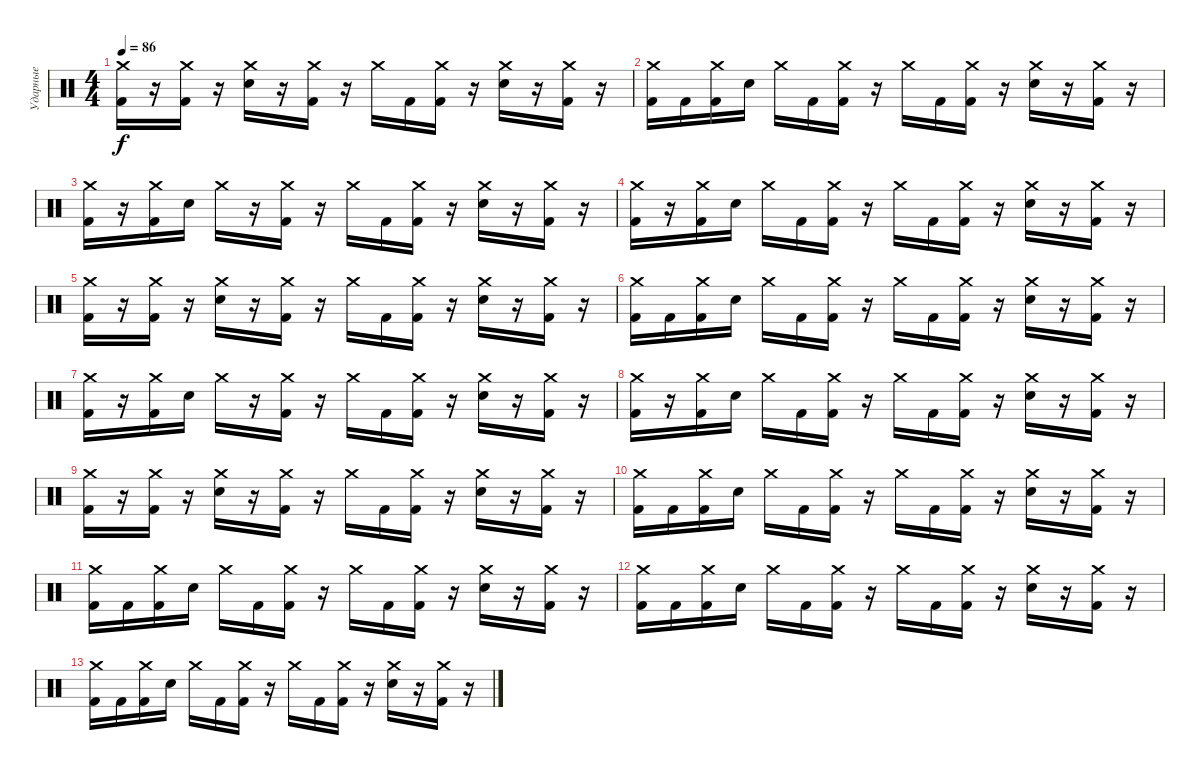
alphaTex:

\track ("Ударные" "Ударные") {instrument percussion}
\staff {score}
\articulation defaults
\ts (4 4)
\tempo 86
\clef neutral
\ks c
("Crash medium (hit)" "Kick (hit) 2").16{dy f} r.16 ("Crash medium (hit)" "Kick (hit) 2").16 r.16 ("Crash medium (hit)" "Electric Snare (hit)").16 r.16 ("Crash medium (hit)" "Kick (hit) 2").16 r.16 "Crash medium (hit)".16 "Kick (hit) 2".16 ("Crash medium (hit)" "Kick (hit) 2").16 r.16 ("Crash medium (hit)" "Electric Snare (hit)").16 r.16 ("Crash medium (hit)" "Kick (hit) 2").16 r.16 |
("Crash medium (hit)" "Kick (hit) 2").16 "Kick (hit) 2".16 ("Crash medium (hit)" "Kick (hit) 2").16 "Electric Snare (hit)".16 "Crash medium (hit)".16 "Kick (hit) 2".16 ("Crash medium (hit)" "Kick (hit) 2").16 r.16 "Crash medium (hit)".16 "Kick (hit) 2".16 ("Crash medium (hit)" "Kick (hit) 2").16 r.16 ("Crash medium (hit)" "Electric Snare (hit)").16 r.16 ("Crash medium (hit)" "Kick (hit) 2").16 r.16 |
("Crash medium (hit)" "Kick (hit) 2").16 r.16 ("Crash medium (hit)" "Kick (hit) 2").16 "Electric Snare (hit)".16 "Crash medium (hit)".16 r.16 ("Crash medium (hit)" "Kick (hit) 2").16 r.16 "Crash medium (hit)".16 "Kick (hit) 2".16 ("Crash medium (hit)" "Kick (hit) 2").16 r.16 ("Crash medium (hit)" "Electric Snare (hit)").16 r.16 ("Crash medium (hit)" "Kick (hit) 2").16 r.16 |
("Crash medium (hit)" "Kick (hit) 2").16 r.16 ("Crash medium (hit)" "Kick (hit) 2").16 "Electric Snare (hit)".16 "Crash medium (hit)".16 "Kick (hit) 2".16 ("Crash medium (hit)" "Kick (hit) 2").16 r.16 "Crash medium (hit)".16 "Kick (hit) 2".16 ("Crash medium (hit)" "Kick (hit) 2").16 r.16 ("Crash medium (hit)" "Electric Snare (hit)").16 r.16 ("Crash medium (hit)" "Kick (hit) 2").16 r.16 |
("Crash medium (hit)" "Kick (hit) 2").16 r.16 ("Crash medium (hit)" "Kick (hit) 2").16 r.16 ("Crash medium (hit)" "Electric Snare (hit)").16 r.16 ("Crash medium (hit)" "Kick (hit) 2").16 r.16 "Crash medium (hit)".16 "Kick (hit) 2".16 ("Crash medium (hit)" "Kick (hit) 2").16 r.16 ("Crash medium (hit)" "Electric Snare (hit)").16 r.16 ("Crash medium (hit)" "Kick (hit) 2").16 r.16 |
("Crash medium (hit)" "Kick (hit) 2").16 "Kick (hit) 2".16 ("Crash medium (hit)" "Kick (hit) 2").16 "Electric Snare (hit)".16 "Crash medium (hit)".16 "Kick (hit) 2".16 ("Crash medium (hit)" "Kick (hit) 2").16 r.16 "Crash medium (hit)".16 "Kick (hit) 2".16 ("Crash medium (hit)" "Kick (hit) 2").16 r.16 ("Crash medium (hit)" "Electric Snare (hit)").16 r.16 ("Crash medium (hit)" "Kick (hit) 2").16 r.16 |
("Crash medium (hit)" "Kick (hit) 2").16 r.16 ("Crash medium (hit)" "Kick (hit) 2").16 "Electric Snare (hit)".16 "Crash medium (hit)".16 r.16 ("Crash medium (hit)" "Kick (hit) 2").16 r.16 "Crash medium (hit)".16 "Kick (hit) 2".16 ("Crash medium (hit)" "Kick (hit) 2").16 r.16 ("Crash medium (hit)" "Electric Snare (hit)").16 r.16 ("Crash medium (hit)" "Kick (hit) 2").16 r.16 |
("Crash medium (hit)" "Kick (hit) 2").16 r.16 ("Crash medium (hit)" "Kick (hit) 2").16 "Electric Snare (hit)".16 "Crash medium (hit)".16 "Kick (hit) 2".16 ("Crash medium (hit)" "Kick (hit) 2").16 r.16 "Crash medium (hit)".16 "Kick (hit) 2".16 ("Crash medium (hit)" "Kick (hit) 2").16 r.16 ("Crash medium (hit)" "Electric Snare (hit)").16 r.16 ("Crash medium (hit)" "Kick (hit) 2").16 r.16 |
("Crash medium (hit)" "Kick (hit) 2").16 r.16 ("Crash medium (hit)" "Kick (hit) 2").16 r.16 ("Crash medium (hit)" "Electric Snare (hit)").16 r.16 ("Crash medium (hit)" "Kick (hit) 2").16 r.16 "Crash medium (hit)".16 "Kick (hit) 2".16 ("Crash medium (hit)" "Kick (hit) 2").16 r.16 ("Crash medium (hit)" "Electric Snare (hit)").16 r.16 ("Crash medium (hit)" "Kick (hit) 2").16 r.16 |
("Crash medium (hit)" "Kick (hit) 2").16 "Kick (hit) 2".16 ("Crash medium (hit)" "Kick (hit) 2").16 "Electric Snare (hit)".16 "Crash medium (hit)".16 "Kick (hit) 2".16 ("Crash medium (hit)" "Kick (hit) 2").16 r.16 "Crash medium (hit)".16 "Kick (hit) 2".16 ("Crash medium (hit)" "Kick (hit) 2").16 r.16 ("Crash medium (hit)" "Electric Snare (hit)").16 r.16 ("Crash medium (hit)" "Kick (hit) 2").16 r.16 |
("Crash medium (hit)" "Kick (hit) 2").16 "Kick (hit) 2".16 ("Crash medium (hit)" "Kick (hit) 2").16 "Electric Snare (hit)".16 "Crash medium (hit)".16 "Kick (hit) 2".16 ("Crash medium (hit)" "Kick (hit) 2").16 r.16 "Crash medium (hit)".16 "Kick (hit) 2".16 ("Crash medium (hit)" "Kick (hit) 2").16 r.16 ("Crash medium (hit)" "Electric Snare (hit)").16 r.16 ("Crash medium (hit)" "Kick (hit) 2").16 r.16 |
("Crash medium (hit)" "Kick (hit) 2").16 "Kick (hit) 2".16 ("Crash medium (hit)" "Kick (hit) 2").16 "Electric Snare (hit)".16 "Crash medium (hit)".16 "Kick (hit) 2".16 ("Crash medium (hit)" "Kick (hit) 2").16 r.16 "Crash medium (hit)".16 "Kick (hit) 2".16 ("Crash medium (hit)" "Kick (hit) 2").16 r.16 ("Crash medium (hit)" "Electric Snare (hit)").16 r.16 ("Crash medium (hit)" "Kick (hit) 2").16 r.16 |
("Crash medium (hit)" "Kick (hit) 2").16 "Kick (hit) 2".16 ("Crash medium (hit)" "Kick (hit) 2").16 "Electric Snare (hit)".16 "Crash medium (hit)".16 "Kick (hit) 2".16 ("Crash medium (hit)" "Kick (hit) 2").16 r.16 "Crash medium (hit)".16 "Kick (hit) 2".16 ("Crash medium (hit)" "Kick (hit) 2").16 r.16 ("Crash medium (hit)" "Electric Snare (hit)").16 r.16 ("Crash medium (hit)" "Kick (hit) 2").16 r.16
